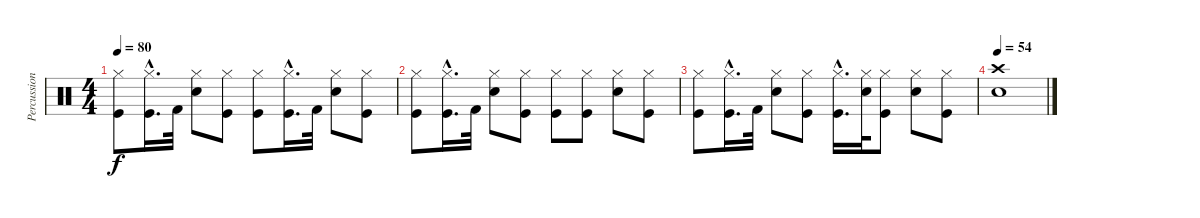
\track ("Percussions" "Percussion") {instrument percussion}
\staff {score}
\articulation defaults
\ts (4 4)
\tempo 80
\clef neutral
\ks c
("Hi-Hat (closed)" "Kick (hit)").8{dy f} ("Hi-Hat (closed)"{hac} "Kick (hit)"{hac}).16{d} "Kick (hit) 2".32 ("Hi-Hat (closed)" "Snare (hit) 2").8 ("Hi-Hat (closed)" "Kick (hit)").8 ("Hi-Hat (closed)" "Kick (hit)").8 ("Hi-Hat (closed)"{hac} "Kick (hit)"{hac}).16{d} "Kick (hit) 2".32 ("Hi-Hat (closed)" "Snare (hit) 2").8 ("Hi-Hat (closed)" "Kick (hit)").8 |
("Hi-Hat (closed)" "Kick (hit)").8 ("Hi-Hat (closed)"{hac} "Kick (hit)"{hac}).16{d} "Kick (hit) 2".32 ("Hi-Hat (closed)" "Snare (hit) 2").8 ("Hi-Hat (closed)" "Kick (hit)").8 ("Hi-Hat (closed)" "Kick (hit)").8 ("Hi-Hat (closed)" "Kick (hit)").8 ("Hi-Hat (closed)" "Snare (hit) 2").8 ("Hi-Hat (closed)" "Kick (hit)").8 |
("Hi-Hat (closed)" "Kick (hit)").8 ("Hi-Hat (closed)"{hac} "Kick (hit)"{hac}).16{d} "Kick (hit) 2".32 ("Hi-Hat (closed)" "Snare (hit) 2").8 ("Hi-Hat (closed)" "Kick (hit)").8 ("Hi-Hat (closed)"{hac} "Kick (hit)"{hac}).16{d} ("Hi-Hat (closed)" "Snare (hit) 2").32 ("Hi-Hat (closed)" "Kick (hit)").8 ("Hi-Hat (closed)" "Snare (hit) 2").8 ("Hi-Hat (closed)" "Kick (hit)").8 |
\tempo 54
("Crash high (hit)" "Snare (hit) 2").1
